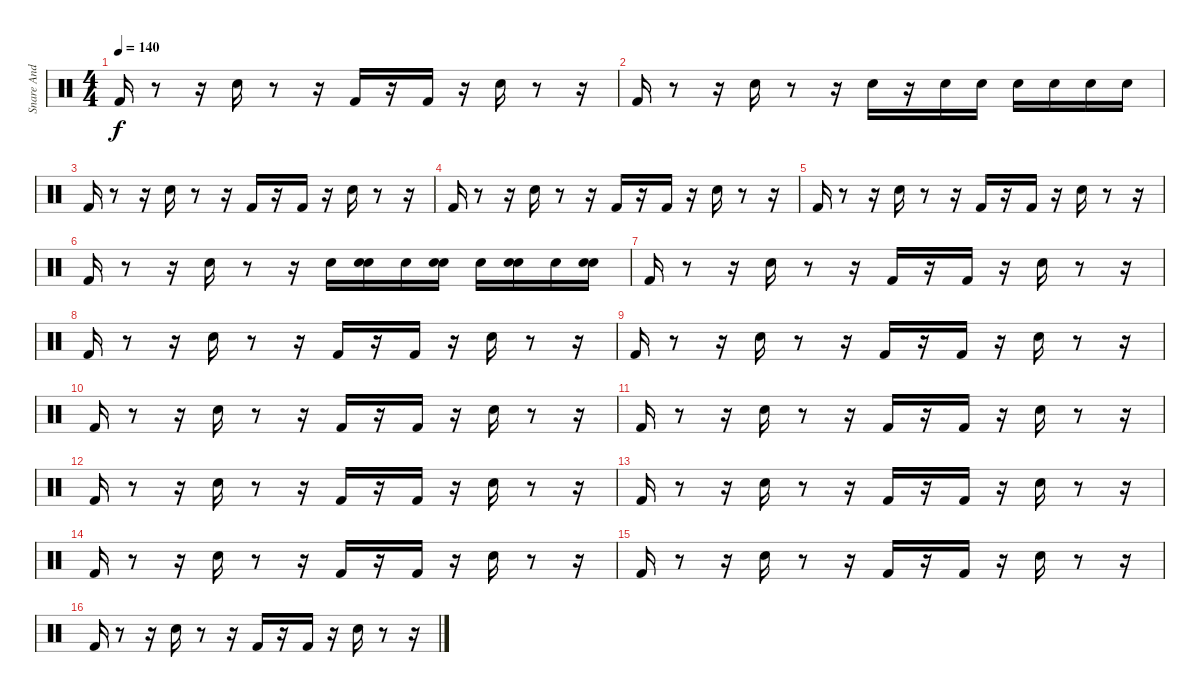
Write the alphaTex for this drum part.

\track ("Snare And Bass Drums" "Snare And ") {instrument percussion}
\staff {score}
\articulation defaults
\ts (4 4)
\tempo 140
\clef neutral
\ks c "Kick (hit) 2".16{dy f}
r.8 r.16 "Snare (hit) 2".16 r.8 r.16 "Kick (hit) 2".16 r.16 "Kick (hit) 2".16 r.16 "Snare (hit) 2".16 r.8 r.16 |
"Kick (hit) 2".16 r.8 r.16 "Snare (hit) 2".16 r.8 r.16 "Snare (hit) 2".16 r.16 "Snare (hit) 2".16 "Snare (hit) 2".16 "Snare (hit) 2".16 "Snare (hit) 2".16 "Snare (hit) 2".16 "Snare (hit) 2".16 |
"Kick (hit) 2".16 r.8 r.16 "Snare (hit) 2".16 r.8 r.16 "Kick (hit) 2".16 r.16 "Kick (hit) 2".16 r.16 "Snare (hit) 2".16 r.8 r.16 |
"Kick (hit) 2".16 r.8 r.16 "Snare (hit) 2".16 r.8 r.16 "Kick (hit) 2".16 r.16 "Kick (hit) 2".16 r.16 "Snare (hit) 2".16 r.8 r.16 |
"Kick (hit) 2".16 r.8 r.16 "Snare (hit) 2".16 r.8 r.16 "Kick (hit) 2".16 r.16 "Kick (hit) 2".16 r.16 "Snare (hit) 2".16 r.8 r.16 |
"Kick (hit) 2".16 r.8 r.16 "Snare (hit) 2".16 r.8 r.16 "Snare (hit) 2".16 ("Snare (hit) 2" "Electric Snare (hit)").16 "Snare (hit) 2".16 ("Snare (hit) 2" "Electric Snare (hit)").16 "Snare (hit) 2".16 ("Snare (hit) 2" "Electric Snare (hit)").16 "Snare (hit) 2".16 ("Snare (hit) 2" "Electric Snare (hit)").16 |
"Kick (hit) 2".16 r.8 r.16 "Snare (hit) 2".16 r.8 r.16 "Kick (hit) 2".16 r.16 "Kick (hit) 2".16 r.16 "Snare (hit) 2".16 r.8 r.16 |
"Kick (hit) 2".16 r.8 r.16 "Snare (hit) 2".16 r.8 r.16 "Kick (hit) 2".16 r.16 "Kick (hit) 2".16 r.16 "Snare (hit) 2".16 r.8 r.16 |
"Kick (hit) 2".16 r.8 r.16 "Snare (hit) 2".16 r.8 r.16 "Kick (hit) 2".16 r.16 "Kick (hit) 2".16 r.16 "Snare (hit) 2".16 r.8 r.16 |
"Kick (hit) 2".16 r.8 r.16 "Snare (hit) 2".16 r.8 r.16 "Kick (hit) 2".16 r.16 "Kick (hit) 2".16 r.16 "Snare (hit) 2".16 r.8 r.16 |
"Kick (hit) 2".16 r.8 r.16 "Snare (hit) 2".16 r.8 r.16 "Kick (hit) 2".16 r.16 "Kick (hit) 2".16 r.16 "Snare (hit) 2".16 r.8 r.16 |
"Kick (hit) 2".16 r.8 r.16 "Snare (hit) 2".16 r.8 r.16 "Kick (hit) 2".16 r.16 "Kick (hit) 2".16 r.16 "Snare (hit) 2".16 r.8 r.16 |
"Kick (hit) 2".16 r.8 r.16 "Snare (hit) 2".16 r.8 r.16 "Kick (hit) 2".16 r.16 "Kick (hit) 2".16 r.16 "Snare (hit) 2".16 r.8 r.16 |
"Kick (hit) 2".16 r.8 r.16 "Snare (hit) 2".16 r.8 r.16 "Kick (hit) 2".16 r.16 "Kick (hit) 2".16 r.16 "Snare (hit) 2".16 r.8 r.16 |
"Kick (hit) 2".16 r.8 r.16 "Snare (hit) 2".16 r.8 r.16 "Kick (hit) 2".16 r.16 "Kick (hit) 2".16 r.16 "Snare (hit) 2".16 r.8 r.16 |
"Kick (hit) 2".16 r.8 r.16 "Snare (hit) 2".16 r.8 r.16 "Kick (hit) 2".16 r.16 "Kick (hit) 2".16 r.16 "Snare (hit) 2".16 r.8 r.16
